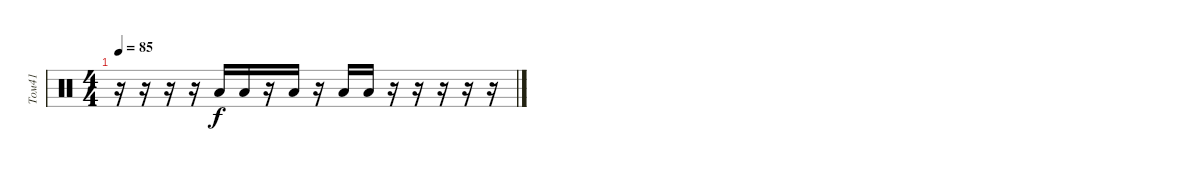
\track ("Том41" "Том41") {instrument percussion}
\staff {score}
\articulation defaults
\ts (4 4)
\tempo 85
\clef neutral
\ks c
r.16{dy f} r.16 r.16 r.16 "Low Floor Tom (hit)".16 "Low Floor Tom (hit)".16 r.16 "Low Floor Tom (hit)".16 r.16 "Low Floor Tom (hit)".16 "Low Floor Tom (hit)".16 r.16 r.16 r.16 r.16 r.16
